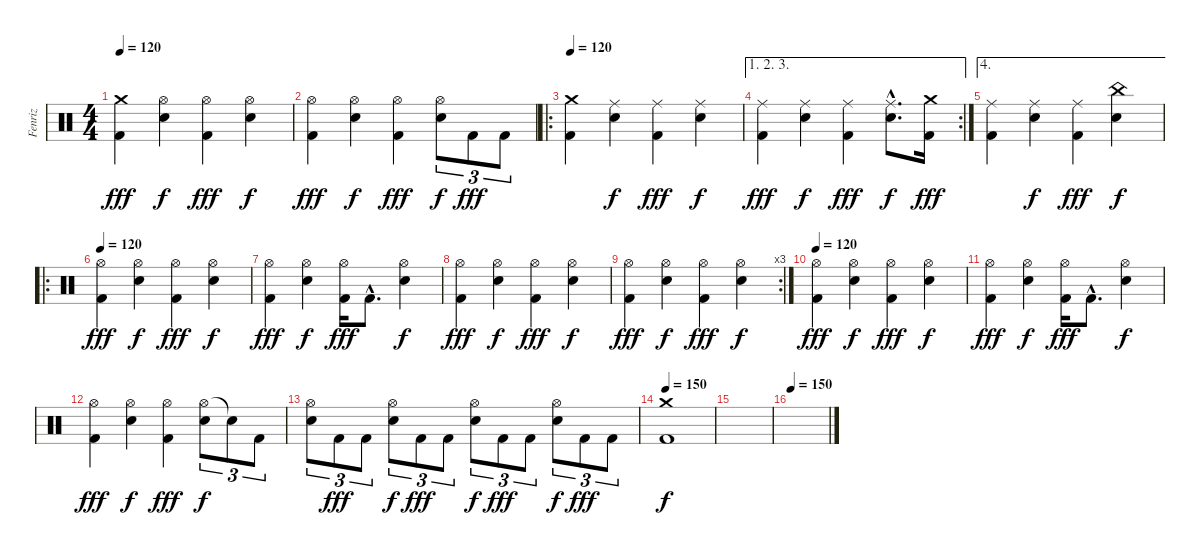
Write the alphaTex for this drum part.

\track ("Fenriz" "Fenriz") {instrument percussion}
\staff {score}
\articulation defaults
\ts (4 4)
\tempo 120
\clef neutral
\ks c
("Crash medium (hit)" "Kick (hit) 2").4{dy fff} ("Hi-Hat (open)" "Electric Snare (hit)").4{dy f} ("Hi-Hat (open)" "Kick (hit) 2").4{dy fff} ("Hi-Hat (open)" "Electric Snare (hit)").4{dy f} |
("Hi-Hat (open)" "Kick (hit) 2").4{dy fff} ("Hi-Hat (open)" "Electric Snare (hit)").4{dy f} ("Hi-Hat (open)" "Kick (hit) 2").4{dy fff} ("Hi-Hat (open)" "Electric Snare (hit)").8{tu (3 2) dy f} "Kick (hit) 2".8{tu (3 2) dy fff} "Kick (hit) 2".8{tu (3 2)} |
\ro
\tempo 120
("Crash medium (hit)" "Kick (hit) 2").4 ("Ride (middle)" "Electric Snare (hit)").4{dy f} ("Ride (middle)" "Kick (hit) 2").4{dy fff} ("Ride (middle)" "Electric Snare (hit)").4{dy f} |
\ae (1 2 3)
\rc 2
("Ride (middle)" "Kick (hit) 2").4{dy fff} ("Ride (middle)" "Electric Snare (hit)").4{dy f} ("Ride (middle)" "Kick (hit) 2").4{dy fff} ("Ride (middle)"{hac} "Electric Snare (hit)"{hac}).8{d dy f} ("Crash medium (hit)" "Kick (hit) 2").16{dy fff} |
\ae 4
("Ride (middle)" "Kick (hit) 2").4 ("Ride (middle)" "Electric Snare (hit)").4{dy f} ("Ride (middle)" "Kick (hit) 2").4{dy fff} ("China (hit)" "Electric Snare (hit)").4{dy f} |
\ro
\tempo 120
("Hi-Hat (open)" "Kick (hit) 2").4{dy fff} ("Hi-Hat (open)" "Electric Snare (hit)").4{dy f} ("Hi-Hat (open)" "Kick (hit) 2").4{dy fff} ("Hi-Hat (open)" "Electric Snare (hit)").4{dy f} |
("Hi-Hat (open)" "Kick (hit) 2").4{dy fff} ("Hi-Hat (open)" "Electric Snare (hit)").4{dy f} ("Hi-Hat (open)" "Kick (hit) 2").16{dy fff} "Kick (hit) 2"{hac}.8{d} ("Hi-Hat (open)" "Electric Snare (hit)").4{dy f} |
("Hi-Hat (open)" "Kick (hit) 2").4{dy fff} ("Hi-Hat (open)" "Electric Snare (hit)").4{dy f} ("Hi-Hat (open)" "Kick (hit) 2").4{dy fff} ("Hi-Hat (open)" "Electric Snare (hit)").4{dy f} |
\rc 3
("Hi-Hat (open)" "Kick (hit) 2").4{dy fff} ("Hi-Hat (open)" "Electric Snare (hit)").4{dy f} ("Hi-Hat (open)" "Kick (hit) 2").4{dy fff} ("Hi-Hat (open)" "Electric Snare (hit)").4{dy f} |
\tempo 120
("Hi-Hat (open)" "Kick (hit) 2").4{dy fff} ("Hi-Hat (open)" "Electric Snare (hit)").4{dy f} ("Hi-Hat (open)" "Kick (hit) 2").4{dy fff} ("Hi-Hat (open)" "Electric Snare (hit)").4{dy f} |
("Hi-Hat (open)" "Kick (hit) 2").4{dy fff} ("Hi-Hat (open)" "Electric Snare (hit)").4{dy f} ("Hi-Hat (open)" "Kick (hit) 2").16{dy fff} "Kick (hit) 2"{hac}.8{d} ("Hi-Hat (open)" "Electric Snare (hit)").4{dy f} |
("Hi-Hat (open)" "Kick (hit) 2").4{dy fff} ("Hi-Hat (open)" "Electric Snare (hit)").4{dy f} ("Hi-Hat (open)" "Kick (hit) 2").4{dy fff} ("Hi-Hat (open)" "Electric Snare (hit)").8{tu (3 2) dy f} "Snare (hit)"{t}.8{tu (3 2)} "Kick (hit) 2".8{tu (3 2)} |
("Hi-Hat (open)" "Electric Snare (hit)").8{tu (3 2)} "Kick (hit) 2".8{tu (3 2) dy fff} "Kick (hit) 2".8{tu (3 2)} ("Hi-Hat (open)" "Electric Snare (hit)").8{tu (3 2) dy f} "Kick (hit) 2".8{tu (3 2) dy fff} "Kick (hit) 2".8{tu (3 2)} ("Hi-Hat (open)" "Electric Snare (hit)").8{tu (3 2) dy f} "Kick (hit) 2".8{tu (3 2) dy fff} "Kick (hit) 2".8{tu (3 2)} ("Hi-Hat (open)" "Electric Snare (hit)").8{tu (3 2) dy f} "Kick (hit) 2".8{tu (3 2) dy fff} "Kick (hit) 2".8{tu (3 2)} |
\tempo 150
("Crash medium (hit)" "Kick (hit) 2").1{dy f} |
|
\tempo 150
